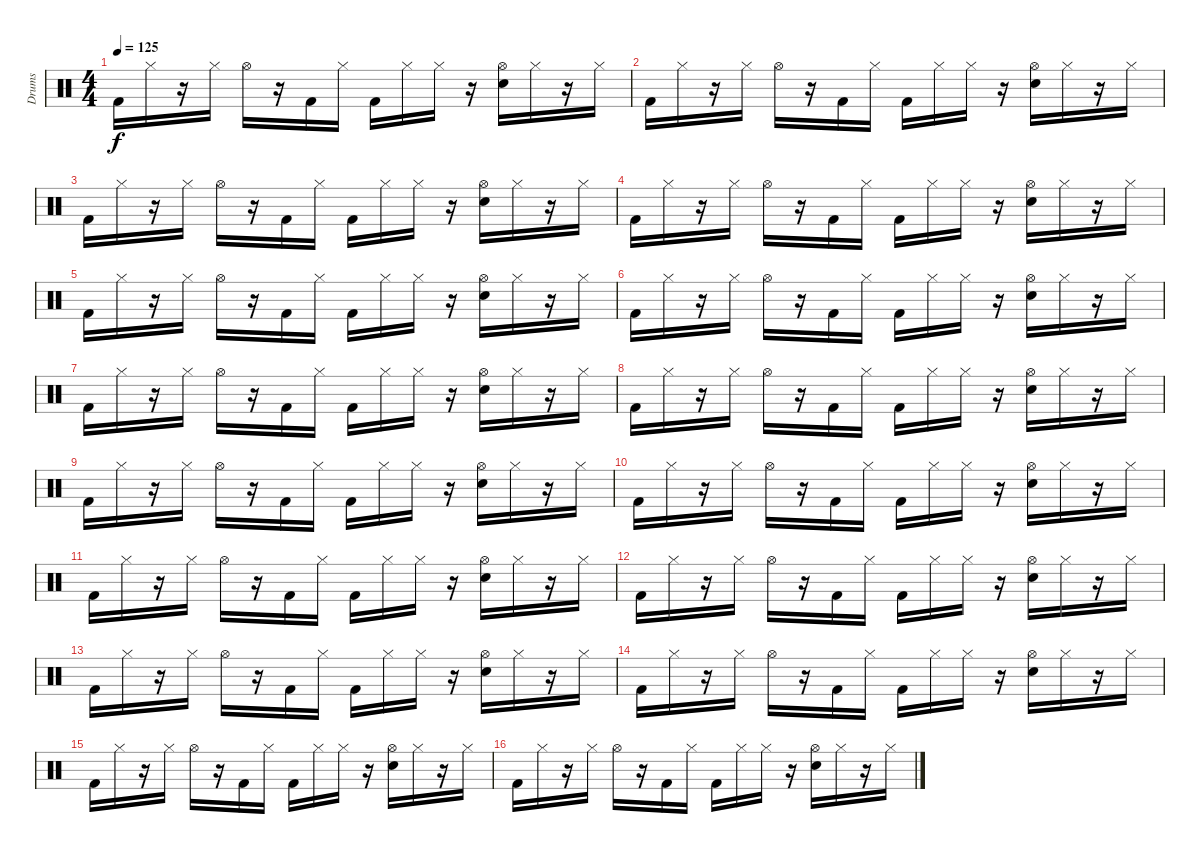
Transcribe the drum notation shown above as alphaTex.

\track ("Drums" "Drums") {instrument percussion}
\staff {score}
\articulation defaults
\ts (4 4)
\tempo 125
\clef neutral
\ks c "Kick (hit) 2".16{dy f} "Hi-Hat (closed)".16
r.16 "Hi-Hat (closed)".16 "Hi-Hat (open)".16 r.16 "Kick (hit) 2".16 "Hi-Hat (closed)".16 "Kick (hit) 2".16 "Hi-Hat (closed)".16 "Hi-Hat (closed)".16 r.16 ("Hi-Hat (open)" "Snare (hit) 2").16 "Hi-Hat (closed)".16 r.16 "Hi-Hat (closed)".16 |
"Kick (hit) 2".16 "Hi-Hat (closed)".16 r.16 "Hi-Hat (closed)".16 "Hi-Hat (open)".16 r.16 "Kick (hit) 2".16 "Hi-Hat (closed)".16 "Kick (hit) 2".16 "Hi-Hat (closed)".16 "Hi-Hat (closed)".16 r.16 ("Hi-Hat (open)" "Snare (hit) 2").16 "Hi-Hat (closed)".16 r.16 "Hi-Hat (closed)".16 |
"Kick (hit) 2".16 "Hi-Hat (closed)".16 r.16 "Hi-Hat (closed)".16 "Hi-Hat (open)".16 r.16 "Kick (hit) 2".16 "Hi-Hat (closed)".16 "Kick (hit) 2".16 "Hi-Hat (closed)".16 "Hi-Hat (closed)".16 r.16 ("Hi-Hat (open)" "Snare (hit) 2").16 "Hi-Hat (closed)".16 r.16 "Hi-Hat (closed)".16 |
"Kick (hit) 2".16 "Hi-Hat (closed)".16 r.16 "Hi-Hat (closed)".16 "Hi-Hat (open)".16 r.16 "Kick (hit) 2".16 "Hi-Hat (closed)".16 "Kick (hit) 2".16 "Hi-Hat (closed)".16 "Hi-Hat (closed)".16 r.16 ("Hi-Hat (open)" "Snare (hit) 2").16 "Hi-Hat (closed)".16 r.16 "Hi-Hat (closed)".16 |
"Kick (hit) 2".16 "Hi-Hat (closed)".16 r.16 "Hi-Hat (closed)".16 "Hi-Hat (open)".16 r.16 "Kick (hit) 2".16 "Hi-Hat (closed)".16 "Kick (hit) 2".16 "Hi-Hat (closed)".16 "Hi-Hat (closed)".16 r.16 ("Hi-Hat (open)" "Snare (hit) 2").16 "Hi-Hat (closed)".16 r.16 "Hi-Hat (closed)".16 |
"Kick (hit) 2".16 "Hi-Hat (closed)".16 r.16 "Hi-Hat (closed)".16 "Hi-Hat (open)".16 r.16 "Kick (hit) 2".16 "Hi-Hat (closed)".16 "Kick (hit) 2".16 "Hi-Hat (closed)".16 "Hi-Hat (closed)".16 r.16 ("Hi-Hat (open)" "Snare (hit) 2").16 "Hi-Hat (closed)".16 r.16 "Hi-Hat (closed)".16 |
"Kick (hit) 2".16 "Hi-Hat (closed)".16 r.16 "Hi-Hat (closed)".16 "Hi-Hat (open)".16 r.16 "Kick (hit) 2".16 "Hi-Hat (closed)".16 "Kick (hit) 2".16 "Hi-Hat (closed)".16 "Hi-Hat (closed)".16 r.16 ("Hi-Hat (open)" "Snare (hit) 2").16 "Hi-Hat (closed)".16 r.16 "Hi-Hat (closed)".16 |
"Kick (hit) 2".16 "Hi-Hat (closed)".16 r.16 "Hi-Hat (closed)".16 "Hi-Hat (open)".16 r.16 "Kick (hit) 2".16 "Hi-Hat (closed)".16 "Kick (hit) 2".16 "Hi-Hat (closed)".16 "Hi-Hat (closed)".16 r.16 ("Hi-Hat (open)" "Snare (hit) 2").16 "Hi-Hat (closed)".16 r.16 "Hi-Hat (closed)".16 |
"Kick (hit) 2".16 "Hi-Hat (closed)".16 r.16 "Hi-Hat (closed)".16 "Hi-Hat (open)".16 r.16 "Kick (hit) 2".16 "Hi-Hat (closed)".16 "Kick (hit) 2".16 "Hi-Hat (closed)".16 "Hi-Hat (closed)".16 r.16 ("Hi-Hat (open)" "Snare (hit) 2").16 "Hi-Hat (closed)".16 r.16 "Hi-Hat (closed)".16 |
"Kick (hit) 2".16 "Hi-Hat (closed)".16 r.16 "Hi-Hat (closed)".16 "Hi-Hat (open)".16 r.16 "Kick (hit) 2".16 "Hi-Hat (closed)".16 "Kick (hit) 2".16 "Hi-Hat (closed)".16 "Hi-Hat (closed)".16 r.16 ("Hi-Hat (open)" "Snare (hit) 2").16 "Hi-Hat (closed)".16 r.16 "Hi-Hat (closed)".16 |
"Kick (hit) 2".16 "Hi-Hat (closed)".16 r.16 "Hi-Hat (closed)".16 "Hi-Hat (open)".16 r.16 "Kick (hit) 2".16 "Hi-Hat (closed)".16 "Kick (hit) 2".16 "Hi-Hat (closed)".16 "Hi-Hat (closed)".16 r.16 ("Hi-Hat (open)" "Snare (hit) 2").16 "Hi-Hat (closed)".16 r.16 "Hi-Hat (closed)".16 |
"Kick (hit) 2".16 "Hi-Hat (closed)".16 r.16 "Hi-Hat (closed)".16 "Hi-Hat (open)".16 r.16 "Kick (hit) 2".16 "Hi-Hat (closed)".16 "Kick (hit) 2".16 "Hi-Hat (closed)".16 "Hi-Hat (closed)".16 r.16 ("Hi-Hat (open)" "Snare (hit) 2").16 "Hi-Hat (closed)".16 r.16 "Hi-Hat (closed)".16 |
"Kick (hit) 2".16 "Hi-Hat (closed)".16 r.16 "Hi-Hat (closed)".16 "Hi-Hat (open)".16 r.16 "Kick (hit) 2".16 "Hi-Hat (closed)".16 "Kick (hit) 2".16 "Hi-Hat (closed)".16 "Hi-Hat (closed)".16 r.16 ("Hi-Hat (open)" "Snare (hit) 2").16 "Hi-Hat (closed)".16 r.16 "Hi-Hat (closed)".16 |
"Kick (hit) 2".16 "Hi-Hat (closed)".16 r.16 "Hi-Hat (closed)".16 "Hi-Hat (open)".16 r.16 "Kick (hit) 2".16 "Hi-Hat (closed)".16 "Kick (hit) 2".16 "Hi-Hat (closed)".16 "Hi-Hat (closed)".16 r.16 ("Hi-Hat (open)" "Snare (hit) 2").16 "Hi-Hat (closed)".16 r.16 "Hi-Hat (closed)".16 |
"Kick (hit) 2".16 "Hi-Hat (closed)".16 r.16 "Hi-Hat (closed)".16 "Hi-Hat (open)".16 r.16 "Kick (hit) 2".16 "Hi-Hat (closed)".16 "Kick (hit) 2".16 "Hi-Hat (closed)".16 "Hi-Hat (closed)".16 r.16 ("Hi-Hat (open)" "Snare (hit) 2").16 "Hi-Hat (closed)".16 r.16 "Hi-Hat (closed)".16 |
"Kick (hit) 2".16 "Hi-Hat (closed)".16 r.16 "Hi-Hat (closed)".16 "Hi-Hat (open)".16 r.16 "Kick (hit) 2".16 "Hi-Hat (closed)".16 "Kick (hit) 2".16 "Hi-Hat (closed)".16 "Hi-Hat (closed)".16 r.16 ("Hi-Hat (open)" "Snare (hit) 2").16 "Hi-Hat (closed)".16 r.16 "Hi-Hat (closed)".16
